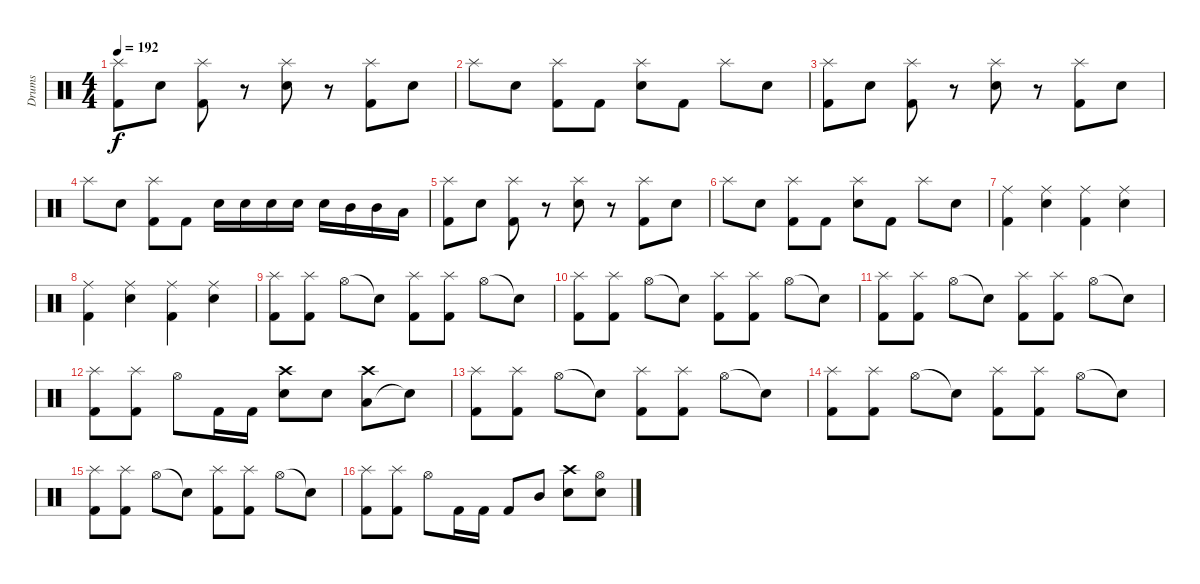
\track ("Drums" "Drums") {instrument percussion}
\staff {score}
\articulation defaults
\ts (4 4)
\tempo 192
\clef neutral
\ks c
("Kick (hit) 2" "Splash (hit)").8{dy f} "Snare (hit) 2".8 ("Kick (hit) 2" "Splash (hit)").8 r.8 ("Electric Snare (hit)" "Splash (hit)").8 r.8 ("Kick (hit) 2" "Splash (hit)").8 "Snare (hit) 2".8 |
"Splash (hit)".8 "Snare (hit) 2".8 ("Kick (hit) 2" "Splash (hit)").8 "Kick (hit) 2".8 ("Electric Snare (hit)" "Splash (hit)").8 "Kick (hit) 2".8 "Splash (hit)".8 "Snare (hit) 2".8 |
("Kick (hit) 2" "Splash (hit)").8 "Snare (hit) 2".8 ("Kick (hit) 2" "Splash (hit)").8 r.8 ("Electric Snare (hit)" "Splash (hit)").8 r.8 ("Kick (hit) 2" "Splash (hit)").8 "Snare (hit) 2".8 |
"Splash (hit)".8 "Snare (hit) 2".8 ("Kick (hit) 2" "Splash (hit)").8 "Kick (hit) 2".8 "Electric Snare (hit)".16 "Electric Snare (hit)".16 "Electric Snare (hit)".16 "Snare (hit) 2".16 "Snare (hit) 2".16 "Mid Tom (hit)".16 "Mid Tom (hit)".16 "Low Tom (hit)".16 |
("Kick (hit) 2" "Splash (hit)").8 "Snare (hit) 2".8 ("Kick (hit) 2" "Splash (hit)").8 r.8 ("Electric Snare (hit)" "Splash (hit)").8 r.8 ("Kick (hit) 2" "Splash (hit)").8 "Snare (hit) 2".8 |
"Splash (hit)".8 "Snare (hit) 2".8 ("Kick (hit) 2" "Splash (hit)").8 "Kick (hit) 2".8 ("Electric Snare (hit)" "Splash (hit)").8 "Kick (hit) 2".8 "Splash (hit)".8 "Snare (hit) 2".8 |
("Kick (hit) 2" "Ride (middle)").4 ("Snare (hit) 2" "Ride (middle)").4 ("Kick (hit) 2" "Ride (middle)").4 ("Snare (hit) 2" "Ride (middle)").4 |
("Kick (hit) 2" "Ride (middle)").4 ("Snare (hit) 2" "Ride (middle)").4 ("Kick (hit) 2" "Ride (middle)").4 ("Snare (hit) 2" "Ride (middle)").4 |
("Kick (hit) 2" "Splash (hit)").8 ("Kick (hit) 2" "Splash (hit)").8 "Hi-Hat (open)".8 "Snare (hit)"{t}.8 ("Kick (hit) 2" "Splash (hit)").8 ("Kick (hit) 2" "Splash (hit)").8 "Hi-Hat (open)".8 "Snare (hit)"{t}.8 |
("Kick (hit) 2" "Splash (hit)").8 ("Kick (hit) 2" "Splash (hit)").8 "Hi-Hat (open)".8 "Snare (hit)"{t}.8 ("Kick (hit) 2" "Splash (hit)").8 ("Kick (hit) 2" "Splash (hit)").8 "Hi-Hat (open)".8 "Snare (hit)"{t}.8 |
("Kick (hit) 2" "Splash (hit)").8 ("Kick (hit) 2" "Splash (hit)").8 "Hi-Hat (open)".8 "Snare (hit)"{t}.8 ("Kick (hit) 2" "Splash (hit)").8 ("Kick (hit) 2" "Splash (hit)").8 "Hi-Hat (open)".8 "Snare (hit)"{t}.8 |
("Kick (hit) 2" "Splash (hit)").8 ("Kick (hit) 2" "Splash (hit)").8 "Hi-Hat (open)".8 "Kick (hit) 2".16 "Kick (hit) 2".16 ("Electric Snare (hit)" "Crash high (hit)").8 "Electric Snare (hit)".8 ("Low Tom (hit)" "Crash high (hit)").8 "Snare (hit)"{t}.8 |
("Kick (hit) 2" "Splash (hit)").8 ("Kick (hit) 2" "Splash (hit)").8 "Hi-Hat (open)".8 "Snare (hit)"{t}.8 ("Kick (hit) 2" "Splash (hit)").8 ("Kick (hit) 2" "Splash (hit)").8 "Hi-Hat (open)".8 "Snare (hit)"{t}.8 |
("Kick (hit) 2" "Splash (hit)").8 ("Kick (hit) 2" "Splash (hit)").8 "Hi-Hat (open)".8 "Snare (hit)"{t}.8 ("Kick (hit) 2" "Splash (hit)").8 ("Kick (hit) 2" "Splash (hit)").8 "Hi-Hat (open)".8 "Snare (hit)"{t}.8 |
("Kick (hit) 2" "Splash (hit)").8 ("Kick (hit) 2" "Splash (hit)").8 "Hi-Hat (open)".8 "Snare (hit)"{t}.8 ("Kick (hit) 2" "Splash (hit)").8 ("Kick (hit) 2" "Splash (hit)").8 "Hi-Hat (open)".8 "Snare (hit)"{t}.8 |
("Kick (hit) 2" "Splash (hit)").8 ("Kick (hit) 2" "Splash (hit)").8 "Hi-Hat (open)".8 "Kick (hit) 2".16 "Kick (hit) 2".16 "Kick (hit) 2".8 "Mid Tom (hit)".8 ("Electric Snare (hit)" "Crash high (hit)").8 ("Electric Snare (hit)" "Hi-Hat (open)").8
